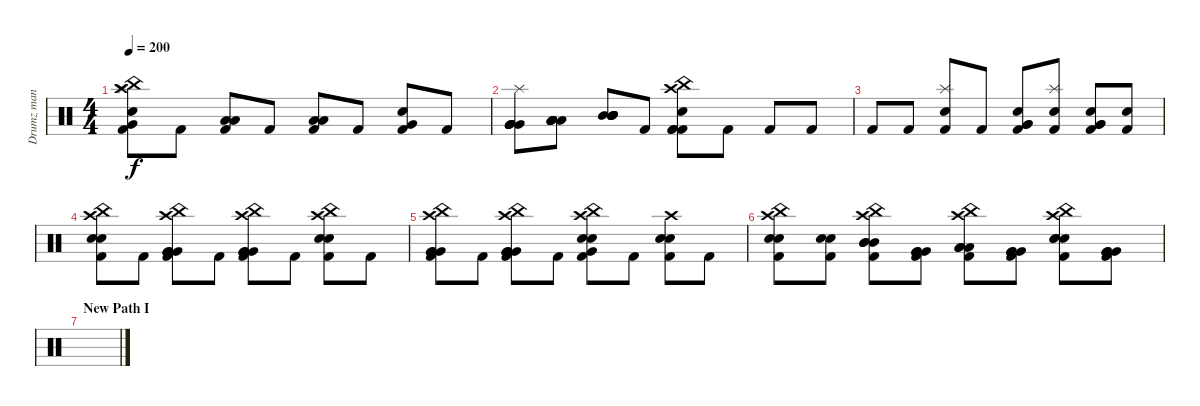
\track ("Drumz man" "Drumz man") {instrument percussion}
\staff {score}
\articulation defaults
\ts (4 4)
\tempo 200
\clef neutral
\ks c
("China (hit)" "Crash high (hit)" "Kick (hit) 2" "Splash (hit)" "Very Low Tom (hit)" "Electric Snare (hit)").8{dy f} "Kick (hit) 2".8 ("Kick (hit) 2" "Low Floor Tom (hit)" "Low Floor Tom (hit)").8 "Kick (hit) 2".8 ("Kick (hit) 2" "Low Floor Tom (hit)" "Low Floor Tom (hit)").8 "Kick (hit) 2".8 ("Kick (hit) 2" "Very Low Tom (hit)" "Electric Snare (hit)").8 "Kick (hit) 2".8 |
("Very Low Tom (hit)" "Very Low Tom (hit)" "Very Low Tom (hit)" "Splash (hit)" "Very Low Tom (hit)" "Very Low Tom (hit)").8 ("Low Floor Tom (hit)" "Low Floor Tom (hit)" "Low Floor Tom (hit)" "Low Floor Tom (hit)" "Low Floor Tom (hit)" "Low Floor Tom (hit)").8 ("Mid Tom (hit)" "Mid Tom (hit)" "Mid Tom (hit)" "Mid Tom (hit)" "Mid Tom (hit)" "Mid Tom (hit)").8 "Kick (hit) 2".8 ("China (hit)" "Crash high (hit)" "Kick (hit) 2" "Kick (hit) 2" "Kick (hit) 2" "Electric Snare (hit)").8 "Kick (hit) 2".8 "Kick (hit) 2".8 "Kick (hit) 2".8 |
"Kick (hit) 2".8 "Kick (hit) 2".8 ("Kick (hit) 2" "Splash (hit)" "Electric Snare (hit)").8 "Kick (hit) 2".8 ("Electric Snare (hit)" "Kick (hit) 2" "Very Low Tom (hit)" "Very Low Tom (hit)").8 ("Electric Snare (hit)" "Kick (hit) 2" "Splash (hit)").8 ("Electric Snare (hit)" "Kick (hit) 2" "Very Low Tom (hit)" "Very Low Tom (hit)").8 ("Electric Snare (hit)" "Kick (hit) 2").8 |
("Crash high (hit)" "China (hit)" "Kick (hit) 2" "Electric Snare (hit)" "Electric Snare (hit)").8 "Kick (hit) 2".8 ("Crash high (hit)" "China (hit)" "Kick (hit) 2" "Very Low Tom (hit)" "Very Low Tom (hit)" "Very Low Tom (hit)").8 "Kick (hit) 2".8 ("Crash high (hit)" "China (hit)" "Kick (hit) 2" "Very Low Tom (hit)" "Very Low Tom (hit)" "Very Low Tom (hit)").8 "Kick (hit) 2".8 ("Crash high (hit)" "China (hit)" "Kick (hit) 2" "Electric Snare (hit)" "Electric Snare (hit)").8 "Kick (hit) 2".8 |
("Crash high (hit)" "China (hit)" "Kick (hit) 2" "Very Low Tom (hit)" "Very Low Tom (hit)" "Very Low Tom (hit)").8 "Kick (hit) 2".8 ("Crash high (hit)" "China (hit)" "Kick (hit) 2" "Very Low Tom (hit)" "Very Low Tom (hit)" "Very Low Tom (hit)").8 "Kick (hit) 2".8 ("Crash high (hit)" "China (hit)" "Kick (hit) 2" "Very Low Tom (hit)" "Electric Snare (hit)" "Electric Snare (hit)").8 "Kick (hit) 2".8 ("Crash high (hit)" "Kick (hit) 2" "Electric Snare (hit)" "Electric Snare (hit)").8 "Kick (hit) 2".8 |
("Crash high (hit)" "China (hit)" "Kick (hit) 2" "Electric Snare (hit)" "Electric Snare (hit)").8 ("Kick (hit) 2" "Electric Snare (hit)" "Electric Snare (hit)").8 ("Crash high (hit)" "China (hit)" "Kick (hit) 2" "Mid Tom (hit)" "Mid Tom (hit)" "Mid Tom (hit)").8 ("Kick (hit) 2" "Very Low Tom (hit)" "Very Low Tom (hit)" "Very Low Tom (hit)").8 ("Crash high (hit)" "China (hit)" "Kick (hit) 2" "Low Floor Tom (hit)" "Low Floor Tom (hit)" "Low Floor Tom (hit)").8 ("Kick (hit) 2" "Very Low Tom (hit)" "Very Low Tom (hit)" "Very Low Tom (hit)").8 ("Crash high (hit)" "China (hit)" "Kick (hit) 2" "Electric Snare (hit)" "Electric Snare (hit)" "Electric Snare (hit)").8 ("Kick (hit) 2" "Very Low Tom (hit)" "Very Low Tom (hit)" "Very Low Tom (hit)").8 |
\section ("" "New Path I")
